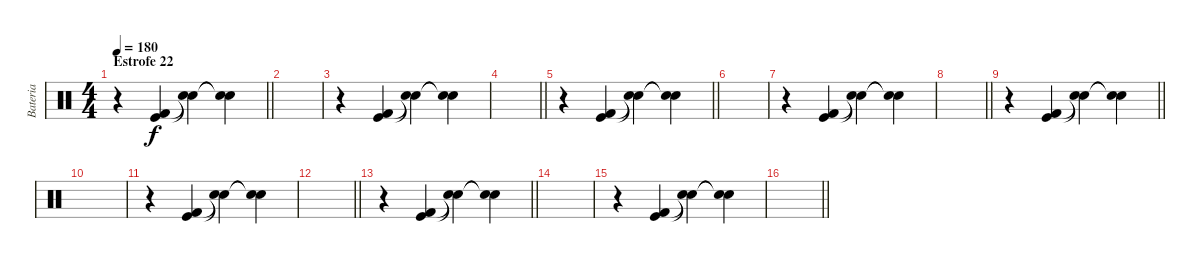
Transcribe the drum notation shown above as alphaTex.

\track ("Bateria" "Bateria") {instrument percussion}
\staff {score}
\articulation defaults
\ts (4 4)
\section ("" "Estrofe 22")
\tempo 180
\clef neutral
\barLineRight lightlight
\ks c
r.4{dy f} ("Kick (hit) 2" "Kick (hit)").4 ("Snare (hit)"{t} "Snare (hit)"{t}).4 ("Snare (hit)"{t} "Snare (hit)"{t}).4 |
|
r.4 ("Kick (hit) 2" "Kick (hit)").4 ("Snare (hit)"{t} "Snare (hit)"{t}).4 ("Snare (hit)"{t} "Snare (hit)"{t}).4 |
\barLineRight lightlight
|
\barLineRight lightlight
r.4 ("Kick (hit) 2" "Kick (hit)").4 ("Snare (hit)"{t} "Snare (hit)"{t}).4 ("Snare (hit)"{t} "Snare (hit)"{t}).4 |
|
r.4 ("Kick (hit) 2" "Kick (hit)").4 ("Snare (hit)"{t} "Snare (hit)"{t}).4 ("Snare (hit)"{t} "Snare (hit)"{t}).4 |
\barLineRight lightlight
|
\barLineRight lightlight
r.4 ("Kick (hit) 2" "Kick (hit)").4 ("Snare (hit)"{t} "Snare (hit)"{t}).4 ("Snare (hit)"{t} "Snare (hit)"{t}).4 |
|
r.4 ("Kick (hit) 2" "Kick (hit)").4 ("Snare (hit)"{t} "Snare (hit)"{t}).4 ("Snare (hit)"{t} "Snare (hit)"{t}).4 |
\barLineRight lightlight
|
\barLineRight lightlight
r.4 ("Kick (hit) 2" "Kick (hit)").4 ("Snare (hit)"{t} "Snare (hit)"{t}).4 ("Snare (hit)"{t} "Snare (hit)"{t}).4 |
|
r.4 ("Kick (hit) 2" "Kick (hit)").4 ("Snare (hit)"{t} "Snare (hit)"{t}).4 ("Snare (hit)"{t} "Snare (hit)"{t}).4 |
\barLineRight lightlight
